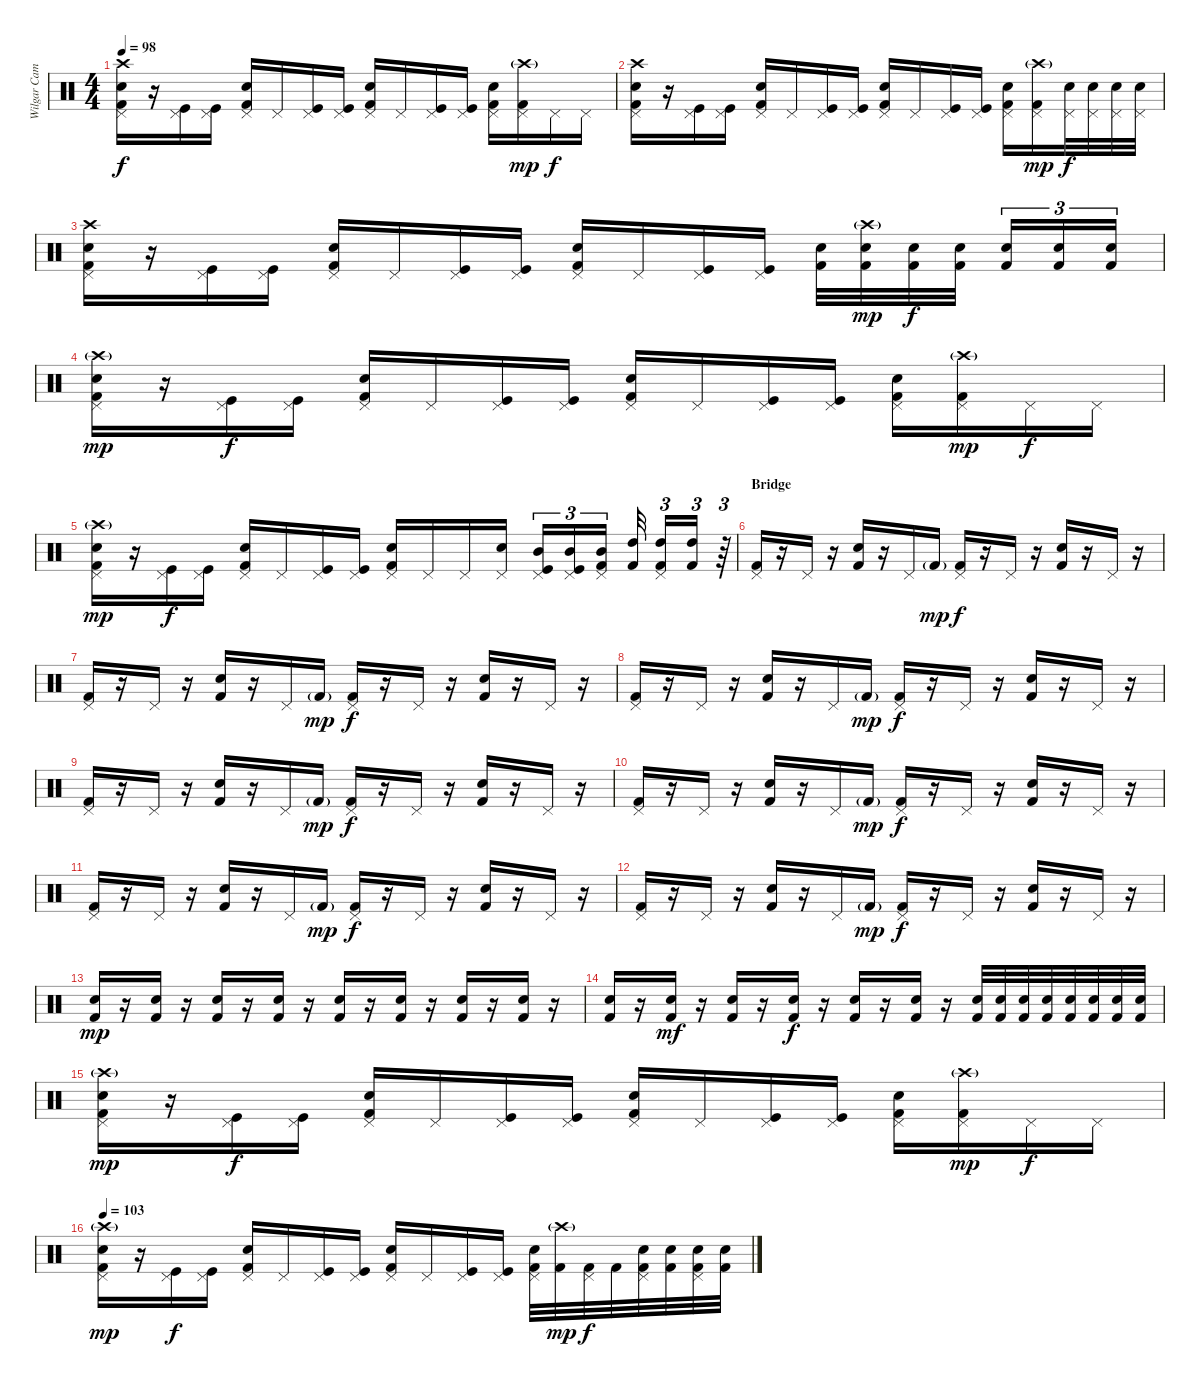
\track ("Wilgar Campbell" "Wilgar Cam") {instrument percussion}
\staff {score}
\articulation defaults
\ts (4 4)
\tempo 98
\clef neutral
\ks c
("Crash high (hit)" "Snare (hit) 2" "Pedal Hi-Hat (hit)" "Kick (hit) 2").16{dy f} r.16 ("Pedal Hi-Hat (hit)" "Kick (hit)").16 ("Pedal Hi-Hat (hit)" "Kick (hit)").16 ("Snare (hit) 2" "Pedal Hi-Hat (hit)" "Kick (hit) 2").16 "Pedal Hi-Hat (hit)".16 ("Pedal Hi-Hat (hit)" "Kick (hit)").16 ("Pedal Hi-Hat (hit)" "Kick (hit)").16 ("Snare (hit) 2" "Pedal Hi-Hat (hit)" "Kick (hit) 2").16 "Pedal Hi-Hat (hit)".16 ("Pedal Hi-Hat (hit)" "Kick (hit)").16 ("Pedal Hi-Hat (hit)" "Kick (hit)").16 ("Snare (hit) 2" "Pedal Hi-Hat (hit)" "Kick (hit) 2").16 ("Crash high (hit)"{g} "Pedal Hi-Hat (hit)" "Kick (hit) 2").16{dy mp} "Pedal Hi-Hat (hit)".16{dy f} "Pedal Hi-Hat (hit)".16 |
("Crash high (hit)" "Snare (hit) 2" "Pedal Hi-Hat (hit)" "Kick (hit) 2").16 r.16 ("Pedal Hi-Hat (hit)" "Kick (hit)").16 ("Pedal Hi-Hat (hit)" "Kick (hit)").16 ("Snare (hit) 2" "Pedal Hi-Hat (hit)" "Kick (hit) 2").16 "Pedal Hi-Hat (hit)".16 ("Pedal Hi-Hat (hit)" "Kick (hit)").16 ("Pedal Hi-Hat (hit)" "Kick (hit)").16 ("Snare (hit) 2" "Pedal Hi-Hat (hit)" "Kick (hit) 2").16 "Pedal Hi-Hat (hit)".16 ("Pedal Hi-Hat (hit)" "Kick (hit)").16 ("Pedal Hi-Hat (hit)" "Kick (hit)").16 ("Snare (hit) 2" "Pedal Hi-Hat (hit)" "Kick (hit) 2").16 ("Crash high (hit)"{g} "Pedal Hi-Hat (hit)" "Kick (hit) 2").16{dy mp} ("Pedal Hi-Hat (hit)" "Electric Snare (hit)").32{dy f} ("Pedal Hi-Hat (hit)" "Electric Snare (hit)").32 ("Pedal Hi-Hat (hit)" "Electric Snare (hit)").32 ("Pedal Hi-Hat (hit)" "Electric Snare (hit)").32 |
("Crash high (hit)" "Snare (hit) 2" "Pedal Hi-Hat (hit)" "Kick (hit) 2").16 r.16 ("Pedal Hi-Hat (hit)" "Kick (hit)").16 ("Pedal Hi-Hat (hit)" "Kick (hit)").16 ("Snare (hit) 2" "Pedal Hi-Hat (hit)" "Kick (hit) 2").16 "Pedal Hi-Hat (hit)".16 ("Pedal Hi-Hat (hit)" "Kick (hit)").16 ("Pedal Hi-Hat (hit)" "Kick (hit)").16 ("Snare (hit) 2" "Pedal Hi-Hat (hit)" "Kick (hit) 2").16 "Pedal Hi-Hat (hit)".16 ("Pedal Hi-Hat (hit)" "Kick (hit)").16 ("Pedal Hi-Hat (hit)" "Kick (hit)").16 ("Snare (hit) 2" "Kick (hit) 2").32 ("Crash high (hit)"{g} "Snare (hit) 2" "Kick (hit) 2").32{dy mp} ("Snare (hit) 2" "Kick (hit) 2").32{dy f} ("Snare (hit) 2" "Kick (hit) 2").32 ("Snare (hit) 2" "Kick (hit) 2").16{tu (3 2)} ("Snare (hit) 2" "Kick (hit) 2").16{tu (3 2)} ("Snare (hit) 2" "Kick (hit) 2").16{tu (3 2)} |
("Crash high (hit)"{g} "Snare (hit) 2" "Pedal Hi-Hat (hit)" "Kick (hit) 2").16{dy mp} r.16 ("Pedal Hi-Hat (hit)" "Kick (hit)").16{dy f} ("Pedal Hi-Hat (hit)" "Kick (hit)").16 ("Snare (hit) 2" "Pedal Hi-Hat (hit)" "Kick (hit) 2").16 "Pedal Hi-Hat (hit)".16 ("Pedal Hi-Hat (hit)" "Kick (hit)").16 ("Pedal Hi-Hat (hit)" "Kick (hit)").16 ("Snare (hit) 2" "Pedal Hi-Hat (hit)" "Kick (hit) 2").16 "Pedal Hi-Hat (hit)".16 ("Pedal Hi-Hat (hit)" "Kick (hit)").16 ("Pedal Hi-Hat (hit)" "Kick (hit)").16 ("Snare (hit) 2" "Pedal Hi-Hat (hit)" "Kick (hit) 2").16 ("Crash high (hit)"{g} "Pedal Hi-Hat (hit)" "Kick (hit) 2").16{dy mp} "Pedal Hi-Hat (hit)".16{dy f} "Pedal Hi-Hat (hit)".16 |
("Crash high (hit)"{g} "Snare (hit) 2" "Pedal Hi-Hat (hit)" "Kick (hit) 2").16{dy mp} r.16 ("Pedal Hi-Hat (hit)" "Kick (hit)").16{dy f} ("Pedal Hi-Hat (hit)" "Kick (hit)").16 ("Snare (hit) 2" "Pedal Hi-Hat (hit)" "Kick (hit) 2").16 "Pedal Hi-Hat (hit)".16 ("Pedal Hi-Hat (hit)" "Kick (hit)").16 ("Pedal Hi-Hat (hit)" "Kick (hit)").16 ("Snare (hit) 2" "Pedal Hi-Hat (hit)" "Kick (hit) 2").16 "Pedal Hi-Hat (hit)".16 "Pedal Hi-Hat (hit)".16 ("Electric Snare (hit)" "Pedal Hi-Hat (hit)").16 ("Mid Tom (hit)" "Pedal Hi-Hat (hit)" "Kick (hit)").16{tu (3 2)} ("Mid Tom (hit)" "Pedal Hi-Hat (hit)" "Kick (hit)").16{tu (3 2)} ("Mid Tom (hit)" "Pedal Hi-Hat (hit)" "Kick (hit) 2").16{tu (3 2)} ("High Tom (hit)" "Kick (hit) 2").32 ("High Tom (hit)" "Pedal Hi-Hat (hit)" "Kick (hit) 2").16{tu (3 2)} ("High Tom (hit)" "Kick (hit) 2").16{tu (3 2)} r.64{tu (3 2)} |
\section ("" "Bridge")
("Pedal Hi-Hat (hit)" "Kick (hit) 2").16 r.16 "Pedal Hi-Hat (hit)".16 r.16 ("Snare (hit) 2" "Kick (hit) 2").16 r.16 "Pedal Hi-Hat (hit)".16 "Kick (hit) 2"{g}.16{dy mp} ("Pedal Hi-Hat (hit)" "Kick (hit) 2").16{dy f} r.16 "Pedal Hi-Hat (hit)".16 r.16 ("Snare (hit) 2" "Kick (hit) 2").16 r.16 "Pedal Hi-Hat (hit)".16 r.16 |
("Pedal Hi-Hat (hit)" "Kick (hit) 2").16 r.16 "Pedal Hi-Hat (hit)".16 r.16 ("Snare (hit) 2" "Kick (hit) 2").16 r.16 "Pedal Hi-Hat (hit)".16 "Kick (hit) 2"{g}.16{dy mp} ("Pedal Hi-Hat (hit)" "Kick (hit) 2").16{dy f} r.16 "Pedal Hi-Hat (hit)".16 r.16 ("Snare (hit) 2" "Kick (hit) 2").16 r.16 "Pedal Hi-Hat (hit)".16 r.16 |
("Pedal Hi-Hat (hit)" "Kick (hit) 2").16 r.16 "Pedal Hi-Hat (hit)".16 r.16 ("Snare (hit) 2" "Kick (hit) 2").16 r.16 "Pedal Hi-Hat (hit)".16 "Kick (hit) 2"{g}.16{dy mp} ("Pedal Hi-Hat (hit)" "Kick (hit) 2").16{dy f} r.16 "Pedal Hi-Hat (hit)".16 r.16 ("Snare (hit) 2" "Kick (hit) 2").16 r.16 "Pedal Hi-Hat (hit)".16 r.16 |
("Pedal Hi-Hat (hit)" "Kick (hit) 2").16 r.16 "Pedal Hi-Hat (hit)".16 r.16 ("Snare (hit) 2" "Kick (hit) 2").16 r.16 "Pedal Hi-Hat (hit)".16 "Kick (hit) 2"{g}.16{dy mp} ("Pedal Hi-Hat (hit)" "Kick (hit) 2").16{dy f} r.16 "Pedal Hi-Hat (hit)".16 r.16 ("Snare (hit) 2" "Kick (hit) 2").16 r.16 "Pedal Hi-Hat (hit)".16 r.16 |
("Pedal Hi-Hat (hit)" "Kick (hit) 2").16 r.16 "Pedal Hi-Hat (hit)".16 r.16 ("Snare (hit) 2" "Kick (hit) 2").16 r.16 "Pedal Hi-Hat (hit)".16 "Kick (hit) 2"{g}.16{dy mp} ("Pedal Hi-Hat (hit)" "Kick (hit) 2").16{dy f} r.16 "Pedal Hi-Hat (hit)".16 r.16 ("Snare (hit) 2" "Kick (hit) 2").16 r.16 "Pedal Hi-Hat (hit)".16 r.16 |
("Pedal Hi-Hat (hit)" "Kick (hit) 2").16 r.16 "Pedal Hi-Hat (hit)".16 r.16 ("Snare (hit) 2" "Kick (hit) 2").16 r.16 "Pedal Hi-Hat (hit)".16 "Kick (hit) 2"{g}.16{dy mp} ("Pedal Hi-Hat (hit)" "Kick (hit) 2").16{dy f} r.16 "Pedal Hi-Hat (hit)".16 r.16 ("Snare (hit) 2" "Kick (hit) 2").16 r.16 "Pedal Hi-Hat (hit)".16 r.16 |
("Pedal Hi-Hat (hit)" "Kick (hit) 2").16 r.16 "Pedal Hi-Hat (hit)".16 r.16 ("Snare (hit) 2" "Kick (hit) 2").16 r.16 "Pedal Hi-Hat (hit)".16 "Kick (hit) 2"{g}.16{dy mp} ("Pedal Hi-Hat (hit)" "Kick (hit) 2").16{dy f} r.16 "Pedal Hi-Hat (hit)".16 r.16 ("Snare (hit) 2" "Kick (hit) 2").16 r.16 "Pedal Hi-Hat (hit)".16 r.16 |
("Snare (hit) 2" "Kick (hit) 2").16{dy mp} r.16 ("Snare (hit) 2" "Kick (hit) 2").16 r.16 ("Snare (hit) 2" "Kick (hit) 2").16 r.16 ("Snare (hit) 2" "Kick (hit) 2").16 r.16 ("Snare (hit) 2" "Kick (hit) 2").16 r.16 ("Snare (hit) 2" "Kick (hit) 2").16 r.16 ("Snare (hit) 2" "Kick (hit) 2").16 r.16 ("Snare (hit) 2" "Kick (hit) 2").16 r.16 |
("Snare (hit) 2" "Kick (hit) 2").16 r.16 ("Snare (hit) 2" "Kick (hit) 2").16{dy mf} r.16 ("Snare (hit) 2" "Kick (hit) 2").16 r.16 ("Snare (hit) 2" "Kick (hit) 2").16{dy f} r.16 ("Snare (hit) 2" "Kick (hit) 2").16 r.16 ("Snare (hit) 2" "Kick (hit) 2").16 r.16 ("Snare (hit) 2" "Kick (hit) 2").32 ("Snare (hit) 2" "Kick (hit) 2").32 ("Snare (hit) 2" "Kick (hit) 2").32 ("Snare (hit) 2" "Kick (hit) 2").32 ("Electric Snare (hit)" "Kick (hit) 2").32 ("Electric Snare (hit)" "Kick (hit) 2").32 ("Electric Snare (hit)" "Kick (hit) 2").32 ("Electric Snare (hit)" "Kick (hit) 2").32 |
("Crash high (hit)"{g} "Snare (hit) 2" "Pedal Hi-Hat (hit)" "Kick (hit) 2").16{dy mp} r.16 ("Pedal Hi-Hat (hit)" "Kick (hit)").16{dy f} ("Pedal Hi-Hat (hit)" "Kick (hit)").16 ("Snare (hit) 2" "Pedal Hi-Hat (hit)" "Kick (hit) 2").16 "Pedal Hi-Hat (hit)".16 ("Pedal Hi-Hat (hit)" "Kick (hit)").16 ("Pedal Hi-Hat (hit)" "Kick (hit)").16 ("Snare (hit) 2" "Pedal Hi-Hat (hit)" "Kick (hit) 2").16 "Pedal Hi-Hat (hit)".16 ("Pedal Hi-Hat (hit)" "Kick (hit)").16 ("Pedal Hi-Hat (hit)" "Kick (hit)").16 ("Snare (hit) 2" "Pedal Hi-Hat (hit)" "Kick (hit) 2").16 ("Crash high (hit)"{g} "Pedal Hi-Hat (hit)" "Kick (hit) 2").16{dy mp} "Pedal Hi-Hat (hit)".16{dy f} "Pedal Hi-Hat (hit)".16 |
\tempo 103
("Crash high (hit)"{g} "Snare (hit) 2" "Pedal Hi-Hat (hit)" "Kick (hit) 2").16{dy mp} r.16 ("Pedal Hi-Hat (hit)" "Kick (hit)").16{dy f} ("Pedal Hi-Hat (hit)" "Kick (hit)").16 ("Snare (hit) 2" "Pedal Hi-Hat (hit)" "Kick (hit) 2").16 "Pedal Hi-Hat (hit)".16 ("Pedal Hi-Hat (hit)" "Kick (hit)").16 ("Pedal Hi-Hat (hit)" "Kick (hit)").16 ("Snare (hit) 2" "Pedal Hi-Hat (hit)" "Kick (hit) 2").16 "Pedal Hi-Hat (hit)".16 ("Pedal Hi-Hat (hit)" "Kick (hit)").16 ("Pedal Hi-Hat (hit)" "Kick (hit)").16 ("Snare (hit) 2" "Pedal Hi-Hat (hit)" "Kick (hit) 2").32 ("Crash high (hit)"{g} "Kick (hit) 2").32{dy mp} ("Pedal Hi-Hat (hit)" "Kick (hit) 2").32{dy f} "Kick (hit) 2".32 ("Pedal Hi-Hat (hit)" "Snare (hit) 2" "Kick (hit) 2").32 ("Snare (hit) 2" "Kick (hit) 2").32 ("Pedal Hi-Hat (hit)" "Snare (hit) 2" "Kick (hit) 2").32 ("Snare (hit) 2" "Kick (hit) 2").32
